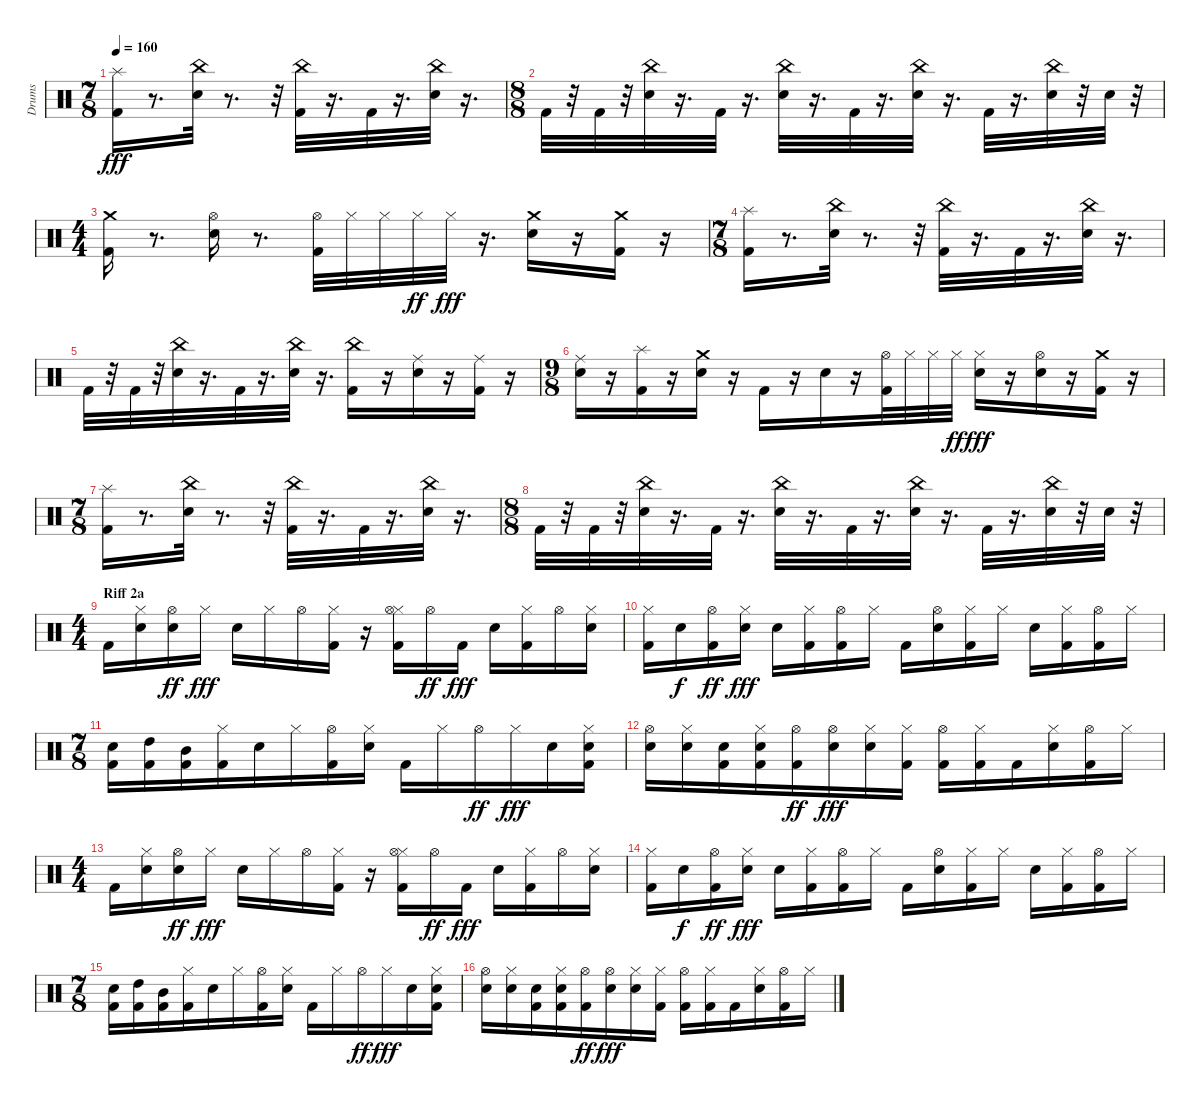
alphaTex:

\track ("Drums" "Drums") {instrument percussion}
\staff {score}
\articulation defaults
\ts (7 8)
\tempo 160
\clef neutral
\ks c
("Kick (hit) 2" "Splash (hit)").16{dy fff} r.8{d} ("Snare (hit) 2" "China (hit)").32 r.8{d} r.32 ("Kick (hit) 2" "China (hit)").32 r.16{d} "Kick (hit) 2".32 r.16{d} ("Snare (hit) 2" "China (hit)").32 r.16{d} |
\ts (8 8)
"Kick (hit) 2".32 r.32 "Kick (hit) 2".32 r.32 ("Snare (hit) 2" "China (hit)").32 r.16{d} "Kick (hit) 2".32 r.16{d} ("Snare (hit) 2" "China (hit)").32 r.16{d} "Kick (hit) 2".32 r.16{d} ("Snare (hit) 2" "China (hit)").32 r.16{d} "Kick (hit) 2".32 r.16{d} ("Snare (hit) 2" "China (hit)").32 r.32 "Snare (hit) 2".32 r.32 |
\ts (4 4)
("Kick (hit) 2" "Crash medium (hit)").16 r.8{d} ("Snare (hit) 2" "Hi-Hat (open)").16 r.8{d} ("Kick (hit) 2" "Hi-Hat (open)").32 "Hi-Hat (closed)".32 "Hi-Hat (closed)".32 "Hi-Hat (closed)".32{dy ff} "Hi-Hat (closed)".32{dy fff} r.16{d} ("Snare (hit) 2" "Crash medium (hit)").16 r.16 ("Kick (hit) 2" "Crash medium (hit)").16 r.16 |
\ts (7 8)
("Kick (hit) 2" "Splash (hit)").16 r.8{d} ("Snare (hit) 2" "China (hit)").32 r.8{d} r.32 ("Kick (hit) 2" "China (hit)").32 r.16{d} "Kick (hit) 2".32 r.16{d} ("Snare (hit) 2" "China (hit)").32 r.16{d} |
"Kick (hit) 2".32 r.32 "Kick (hit) 2".32 r.32 ("Snare (hit) 2" "China (hit)").32 r.16{d} "Kick (hit) 2".32 r.16{d} ("Snare (hit) 2" "China (hit)").32 r.16{d} ("Kick (hit) 2" "China (hit)").16 r.16 ("Snare (hit) 2" "Ride (middle)").16 r.16 ("Kick (hit) 2" "Ride (middle)").16 r.16 |
\ts (9 8)
("Snare (hit) 2" "Ride (middle)").16 r.16 ("Kick (hit) 2" "Splash (hit)").16 r.16 ("Snare (hit) 2" "Crash medium (hit)").16 r.16 "Kick (hit) 2".16 r.16 "Snare (hit) 2".16 r.16 ("Kick (hit) 2" "Hi-Hat (open)").32 "Hi-Hat (closed)".32 "Hi-Hat (closed)".32 "Hi-Hat (closed)".32{dy ff} ("Snare (hit) 2" "Hi-Hat (closed)").16{dy fff} r.16 ("Snare (hit) 2" "Hi-Hat (open)").16 r.16 ("Kick (hit) 2" "Crash medium (hit)").16 r.16 |
\ts (7 8)
("Kick (hit) 2" "Splash (hit)").16 r.8{d} ("Snare (hit) 2" "China (hit)").32 r.8{d} r.32 ("Kick (hit) 2" "China (hit)").32 r.16{d} "Kick (hit) 2".32 r.16{d} ("Snare (hit) 2" "China (hit)").32 r.16{d} |
\ts (8 8)
"Kick (hit) 2".32 r.32 "Kick (hit) 2".32 r.32 ("Snare (hit) 2" "China (hit)").32 r.16{d} "Kick (hit) 2".32 r.16{d} ("Snare (hit) 2" "China (hit)").32 r.16{d} "Kick (hit) 2".32 r.16{d} ("Snare (hit) 2" "China (hit)").32 r.16{d} "Kick (hit) 2".32 r.16{d} ("Snare (hit) 2" "China (hit)").32 r.32 "Snare (hit) 2".32 r.32 |
\ts (4 4)
\section ("" "Riff 2a")
"Kick (hit) 2".16 ("Snare (hit) 2" "Hi-Hat (closed)").16 ("Snare (hit) 2" "Hi-Hat (open)").16{dy ff} "Hi-Hat (closed)".16{dy fff} "Snare (hit) 2".16 "Hi-Hat (closed)".16 "Hi-Hat (open)".16 ("Kick (hit) 2" "Hi-Hat (closed)").16 r.16 ("Kick (hit) 2" "Hi-Hat (closed)" "Hi-Hat (open)").16 "Hi-Hat (open)".16{dy ff} "Kick (hit) 2".16{dy fff} "Snare (hit) 2".16 ("Kick (hit) 2" "Hi-Hat (closed)").16 "Hi-Hat (open)".16 ("Snare (hit) 2" "Hi-Hat (closed)").16 |
("Kick (hit) 2" "Hi-Hat (closed)").16 "Snare (hit) 2".16{dy f} ("Kick (hit) 2" "Hi-Hat (open)").16{dy ff} ("Snare (hit) 2" "Hi-Hat (closed)").16{dy fff} "Snare (hit) 2".16 ("Kick (hit) 2" "Hi-Hat (closed)").16 ("Kick (hit) 2" "Hi-Hat (open)").16 "Hi-Hat (closed)".16 "Kick (hit) 2".16 ("Snare (hit) 2" "Hi-Hat (open)").16 ("Kick (hit) 2" "Hi-Hat (closed)").16 "Hi-Hat (closed)".16 "Snare (hit) 2".16 ("Kick (hit) 2" "Hi-Hat (closed)").16 ("Kick (hit) 2" "Hi-Hat (open)").16 "Hi-Hat (closed)".16 |
\ts (7 8)
("Kick (hit) 2" "Snare (hit) 2").16 ("Kick (hit) 2" "High Tom (hit)").16 ("Kick (hit) 2" "Mid Tom (hit)").16 ("Kick (hit) 2" "Hi-Hat (closed)").16 "Snare (hit) 2".16 "Hi-Hat (closed)".16 ("Kick (hit) 2" "Hi-Hat (open)").16 ("Snare (hit) 2" "Hi-Hat (closed)").16 "Kick (hit) 2".16 "Hi-Hat (closed)".16 "Hi-Hat (open)".16{dy ff} "Hi-Hat (closed)".16{dy fff} "Snare (hit) 2".16 ("Kick (hit) 2" "Snare (hit) 2" "Hi-Hat (closed)").16 |
("Snare (hit) 2" "Hi-Hat (open)").16 ("Snare (hit) 2" "Hi-Hat (closed)").16 ("Kick (hit) 2" "Snare (hit) 2").16 ("Kick (hit) 2" "Snare (hit) 2" "Hi-Hat (closed)").16 ("Kick (hit) 2" "Hi-Hat (open)").16{dy ff} ("Snare (hit) 2" "Hi-Hat (open)").16{dy fff} ("Snare (hit) 2" "Hi-Hat (closed)").16 ("Kick (hit) 2" "Hi-Hat (closed)").16 ("Kick (hit) 2" "Hi-Hat (open)").16 ("Kick (hit) 2" "Hi-Hat (closed)").16 "Kick (hit) 2".16 ("Snare (hit) 2" "Hi-Hat (closed)").16 ("Kick (hit) 2" "Hi-Hat (open)").16 "Hi-Hat (closed)".16 |
\ts (4 4)
"Kick (hit) 2".16 ("Snare (hit) 2" "Hi-Hat (closed)").16 ("Snare (hit) 2" "Hi-Hat (open)").16{dy ff} "Hi-Hat (closed)".16{dy fff} "Snare (hit) 2".16 "Hi-Hat (closed)".16 "Hi-Hat (open)".16 ("Kick (hit) 2" "Hi-Hat (closed)").16 r.16 ("Kick (hit) 2" "Hi-Hat (closed)" "Hi-Hat (open)").16 "Hi-Hat (open)".16{dy ff} "Kick (hit) 2".16{dy fff} "Snare (hit) 2".16 ("Kick (hit) 2" "Hi-Hat (closed)").16 "Hi-Hat (open)".16 ("Snare (hit) 2" "Hi-Hat (closed)").16 |
("Kick (hit) 2" "Hi-Hat (closed)").16 "Snare (hit) 2".16{dy f} ("Kick (hit) 2" "Hi-Hat (open)").16{dy ff} ("Snare (hit) 2" "Hi-Hat (closed)").16{dy fff} "Snare (hit) 2".16 ("Kick (hit) 2" "Hi-Hat (closed)").16 ("Kick (hit) 2" "Hi-Hat (open)").16 "Hi-Hat (closed)".16 "Kick (hit) 2".16 ("Snare (hit) 2" "Hi-Hat (open)").16 ("Kick (hit) 2" "Hi-Hat (closed)").16 "Hi-Hat (closed)".16 "Snare (hit) 2".16 ("Kick (hit) 2" "Hi-Hat (closed)").16 ("Kick (hit) 2" "Hi-Hat (open)").16 "Hi-Hat (closed)".16 |
\ts (7 8)
("Kick (hit) 2" "Snare (hit) 2").16 ("Kick (hit) 2" "High Tom (hit)").16 ("Kick (hit) 2" "Mid Tom (hit)").16 ("Kick (hit) 2" "Hi-Hat (closed)").16 "Snare (hit) 2".16 "Hi-Hat (closed)".16 ("Kick (hit) 2" "Hi-Hat (open)").16 ("Snare (hit) 2" "Hi-Hat (closed)").16 "Kick (hit) 2".16 "Hi-Hat (closed)".16 "Hi-Hat (open)".16{dy ff} "Hi-Hat (closed)".16{dy fff} "Snare (hit) 2".16 ("Kick (hit) 2" "Snare (hit) 2" "Hi-Hat (closed)").16 |
("Snare (hit) 2" "Hi-Hat (open)").16 ("Snare (hit) 2" "Hi-Hat (closed)").16 ("Kick (hit) 2" "Snare (hit) 2").16 ("Kick (hit) 2" "Snare (hit) 2" "Hi-Hat (closed)").16 ("Kick (hit) 2" "Hi-Hat (open)").16{dy ff} ("Snare (hit) 2" "Hi-Hat (open)").16{dy fff} ("Snare (hit) 2" "Hi-Hat (closed)").16 ("Kick (hit) 2" "Hi-Hat (closed)").16 ("Kick (hit) 2" "Hi-Hat (open)").16 ("Kick (hit) 2" "Hi-Hat (closed)").16 "Kick (hit) 2".16 ("Snare (hit) 2" "Hi-Hat (closed)").16 ("Kick (hit) 2" "Hi-Hat (open)").16 "Hi-Hat (closed)".16
